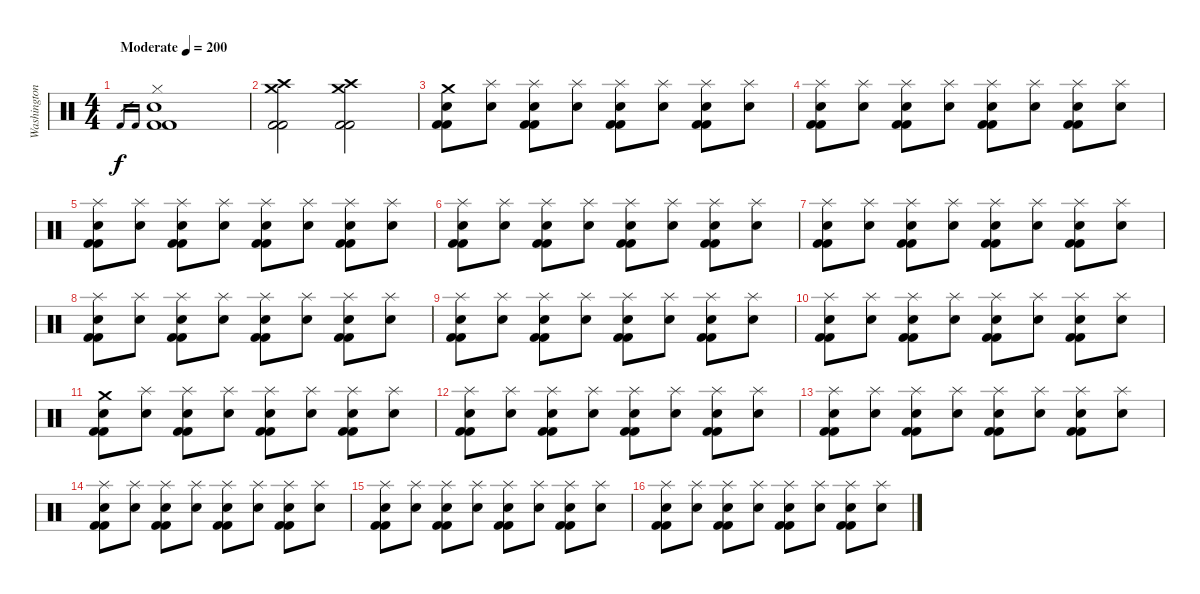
\track ("Washington" "Washington") {instrument percussion}
\staff {score}
\articulation defaults
\ts (4 4)
\tempo (200 "Moderate")
\clef neutral
\ks c "Kick (hit) 2".16{gr dy f} "Kick (hit) 2".16{gr}
("Hi-Hat (closed)" "Electric Snare (hit)" "Kick (hit) 2" "Kick (hit) 2").1 |
("Crash high (hit)" "Crash medium (hit)" "Kick (hit) 2" "Kick (hit) 2").2 ("Crash high (hit)" "Crash medium (hit)" "Kick (hit) 2" "Kick (hit) 2").2 |
("Crash medium (hit)" "Electric Snare (hit)" "Kick (hit) 2" "Kick (hit) 2").8 ("Splash (hit)" "Electric Snare (hit)").8 ("Splash (hit)" "Electric Snare (hit)" "Kick (hit) 2" "Kick (hit) 2").8 ("Splash (hit)" "Electric Snare (hit)").8 ("Splash (hit)" "Electric Snare (hit)" "Kick (hit) 2" "Kick (hit) 2").8 ("Splash (hit)" "Electric Snare (hit)").8 ("Splash (hit)" "Electric Snare (hit)" "Kick (hit) 2" "Kick (hit) 2").8 ("Splash (hit)" "Electric Snare (hit)").8 |
("Splash (hit)" "Electric Snare (hit)" "Kick (hit) 2" "Kick (hit) 2").8 ("Splash (hit)" "Electric Snare (hit)").8 ("Splash (hit)" "Electric Snare (hit)" "Kick (hit) 2" "Kick (hit) 2").8 ("Splash (hit)" "Electric Snare (hit)").8 ("Splash (hit)" "Electric Snare (hit)" "Kick (hit) 2" "Kick (hit) 2").8 ("Splash (hit)" "Electric Snare (hit)").8 ("Splash (hit)" "Electric Snare (hit)" "Kick (hit) 2" "Kick (hit) 2").8 ("Splash (hit)" "Electric Snare (hit)").8 |
("Splash (hit)" "Electric Snare (hit)" "Kick (hit) 2" "Kick (hit) 2").8 ("Splash (hit)" "Electric Snare (hit)").8 ("Splash (hit)" "Electric Snare (hit)" "Kick (hit) 2" "Kick (hit) 2").8 ("Splash (hit)" "Electric Snare (hit)").8 ("Splash (hit)" "Electric Snare (hit)" "Kick (hit) 2" "Kick (hit) 2").8 ("Splash (hit)" "Electric Snare (hit)").8 ("Splash (hit)" "Electric Snare (hit)" "Kick (hit) 2" "Kick (hit) 2").8 ("Splash (hit)" "Electric Snare (hit)").8 |
("Splash (hit)" "Electric Snare (hit)" "Kick (hit) 2" "Kick (hit) 2").8 ("Splash (hit)" "Electric Snare (hit)").8 ("Splash (hit)" "Electric Snare (hit)" "Kick (hit) 2" "Kick (hit) 2").8 ("Splash (hit)" "Electric Snare (hit)").8 ("Splash (hit)" "Electric Snare (hit)" "Kick (hit) 2" "Kick (hit) 2").8 ("Splash (hit)" "Electric Snare (hit)").8 ("Splash (hit)" "Electric Snare (hit)" "Kick (hit) 2" "Kick (hit) 2").8 ("Splash (hit)" "Electric Snare (hit)").8 |
("Splash (hit)" "Electric Snare (hit)" "Kick (hit) 2" "Kick (hit) 2").8 ("Splash (hit)" "Electric Snare (hit)").8 ("Splash (hit)" "Electric Snare (hit)" "Kick (hit) 2" "Kick (hit) 2").8 ("Splash (hit)" "Electric Snare (hit)").8 ("Splash (hit)" "Electric Snare (hit)" "Kick (hit) 2" "Kick (hit) 2").8 ("Splash (hit)" "Electric Snare (hit)").8 ("Splash (hit)" "Electric Snare (hit)" "Kick (hit) 2" "Kick (hit) 2").8 ("Splash (hit)" "Electric Snare (hit)").8 |
("Splash (hit)" "Electric Snare (hit)" "Kick (hit) 2" "Kick (hit) 2").8 ("Splash (hit)" "Electric Snare (hit)").8 ("Splash (hit)" "Electric Snare (hit)" "Kick (hit) 2" "Kick (hit) 2").8 ("Splash (hit)" "Electric Snare (hit)").8 ("Splash (hit)" "Electric Snare (hit)" "Kick (hit) 2" "Kick (hit) 2").8 ("Splash (hit)" "Electric Snare (hit)").8 ("Splash (hit)" "Electric Snare (hit)" "Kick (hit) 2" "Kick (hit) 2").8 ("Splash (hit)" "Electric Snare (hit)").8 |
("Splash (hit)" "Electric Snare (hit)" "Kick (hit) 2" "Kick (hit) 2").8 ("Splash (hit)" "Electric Snare (hit)").8 ("Splash (hit)" "Electric Snare (hit)" "Kick (hit) 2" "Kick (hit) 2").8 ("Splash (hit)" "Electric Snare (hit)").8 ("Splash (hit)" "Electric Snare (hit)" "Kick (hit) 2" "Kick (hit) 2").8 ("Splash (hit)" "Electric Snare (hit)").8 ("Splash (hit)" "Electric Snare (hit)" "Kick (hit) 2" "Kick (hit) 2").8 ("Splash (hit)" "Electric Snare (hit)").8 |
("Splash (hit)" "Electric Snare (hit)" "Kick (hit) 2" "Kick (hit) 2").8 ("Splash (hit)" "Electric Snare (hit)").8 ("Splash (hit)" "Electric Snare (hit)" "Kick (hit) 2" "Kick (hit) 2").8 ("Splash (hit)" "Electric Snare (hit)").8 ("Splash (hit)" "Electric Snare (hit)" "Kick (hit) 2" "Kick (hit) 2").8 ("Splash (hit)" "Electric Snare (hit)").8 ("Splash (hit)" "Electric Snare (hit)" "Kick (hit) 2" "Kick (hit) 2").8 ("Splash (hit)" "Electric Snare (hit)").8 |
("Crash medium (hit)" "Electric Snare (hit)" "Kick (hit) 2" "Kick (hit) 2").8 ("Splash (hit)" "Electric Snare (hit)").8 ("Splash (hit)" "Electric Snare (hit)" "Kick (hit) 2" "Kick (hit) 2").8 ("Splash (hit)" "Electric Snare (hit)").8 ("Splash (hit)" "Electric Snare (hit)" "Kick (hit) 2" "Kick (hit) 2").8 ("Splash (hit)" "Electric Snare (hit)").8 ("Splash (hit)" "Electric Snare (hit)" "Kick (hit) 2" "Kick (hit) 2").8 ("Splash (hit)" "Electric Snare (hit)").8 |
("Splash (hit)" "Electric Snare (hit)" "Kick (hit) 2" "Kick (hit) 2").8 ("Splash (hit)" "Electric Snare (hit)").8 ("Splash (hit)" "Electric Snare (hit)" "Kick (hit) 2" "Kick (hit) 2").8 ("Splash (hit)" "Electric Snare (hit)").8 ("Splash (hit)" "Electric Snare (hit)" "Kick (hit) 2" "Kick (hit) 2").8 ("Splash (hit)" "Electric Snare (hit)").8 ("Splash (hit)" "Electric Snare (hit)" "Kick (hit) 2" "Kick (hit) 2").8 ("Splash (hit)" "Electric Snare (hit)").8 |
("Splash (hit)" "Electric Snare (hit)" "Kick (hit) 2" "Kick (hit) 2").8 ("Splash (hit)" "Electric Snare (hit)").8 ("Splash (hit)" "Electric Snare (hit)" "Kick (hit) 2" "Kick (hit) 2").8 ("Splash (hit)" "Electric Snare (hit)").8 ("Splash (hit)" "Electric Snare (hit)" "Kick (hit) 2" "Kick (hit) 2").8 ("Splash (hit)" "Electric Snare (hit)").8 ("Splash (hit)" "Electric Snare (hit)" "Kick (hit) 2" "Kick (hit) 2").8 ("Splash (hit)" "Electric Snare (hit)").8 |
("Splash (hit)" "Electric Snare (hit)" "Kick (hit) 2" "Kick (hit) 2").8 ("Splash (hit)" "Electric Snare (hit)").8 ("Splash (hit)" "Electric Snare (hit)" "Kick (hit) 2" "Kick (hit) 2").8 ("Splash (hit)" "Electric Snare (hit)").8 ("Splash (hit)" "Electric Snare (hit)" "Kick (hit) 2" "Kick (hit) 2").8 ("Splash (hit)" "Electric Snare (hit)").8 ("Splash (hit)" "Electric Snare (hit)" "Kick (hit) 2" "Kick (hit) 2").8 ("Splash (hit)" "Electric Snare (hit)").8 |
("Splash (hit)" "Electric Snare (hit)" "Kick (hit) 2" "Kick (hit) 2").8 ("Splash (hit)" "Electric Snare (hit)").8 ("Splash (hit)" "Electric Snare (hit)" "Kick (hit) 2" "Kick (hit) 2").8 ("Splash (hit)" "Electric Snare (hit)").8 ("Splash (hit)" "Electric Snare (hit)" "Kick (hit) 2" "Kick (hit) 2").8 ("Splash (hit)" "Electric Snare (hit)").8 ("Splash (hit)" "Electric Snare (hit)" "Kick (hit) 2" "Kick (hit) 2").8 ("Splash (hit)" "Electric Snare (hit)").8 |
("Splash (hit)" "Electric Snare (hit)" "Kick (hit) 2" "Kick (hit) 2").8 ("Splash (hit)" "Electric Snare (hit)").8 ("Splash (hit)" "Electric Snare (hit)" "Kick (hit) 2" "Kick (hit) 2").8 ("Splash (hit)" "Electric Snare (hit)").8 ("Splash (hit)" "Electric Snare (hit)" "Kick (hit) 2" "Kick (hit) 2").8 ("Splash (hit)" "Electric Snare (hit)").8 ("Splash (hit)" "Electric Snare (hit)" "Kick (hit) 2" "Kick (hit) 2").8 ("Splash (hit)" "Electric Snare (hit)").8
